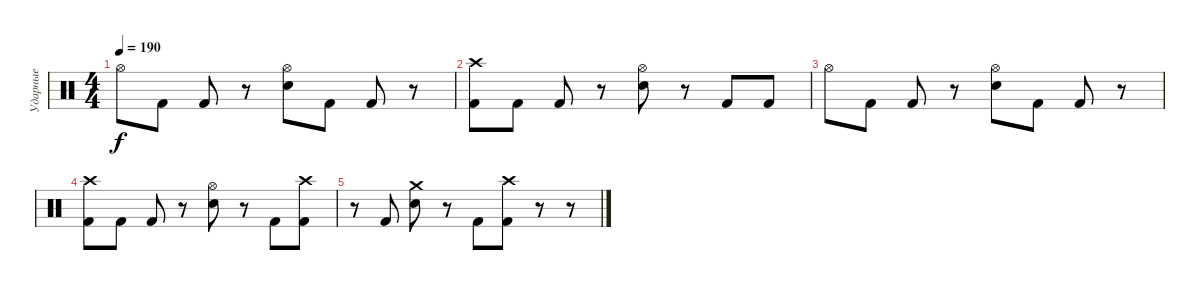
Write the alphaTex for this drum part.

\track ("Ударные" "Ударные") {instrument percussion}
\staff {score}
\articulation defaults
\ts (4 4)
\tempo 190
\clef neutral
\ks c "Hi-Hat (open)".8{dy f} "Kick (hit) 2".8 "Kick (hit) 2".8
r.8 ("Hi-Hat (open)" "Electric Snare (hit)").8 "Kick (hit) 2".8 "Kick (hit) 2".8 r.8 |
("Crash high (hit)" "Kick (hit) 2").8 "Kick (hit) 2".8 "Kick (hit) 2".8 r.8 ("Hi-Hat (open)" "Electric Snare (hit)").8 r.8 "Kick (hit) 2".8 "Kick (hit) 2".8 |
"Hi-Hat (open)".8 "Kick (hit) 2".8 "Kick (hit) 2".8 r.8 ("Hi-Hat (open)" "Electric Snare (hit)").8 "Kick (hit) 2".8 "Kick (hit) 2".8 r.8 |
("Crash high (hit)" "Kick (hit) 2").8 "Kick (hit) 2".8 "Kick (hit) 2".8 r.8 ("Hi-Hat (open)" "Electric Snare (hit)").8 r.8 "Kick (hit) 2".8 ("Crash high (hit)" "Kick (hit) 2").8 |
r.8 "Kick (hit) 2".8 ("Crash medium (hit)" "Electric Snare (hit)").8 r.8 "Kick (hit) 2".8 ("Crash high (hit)" "Kick (hit) 2").8 r.8 r.8
